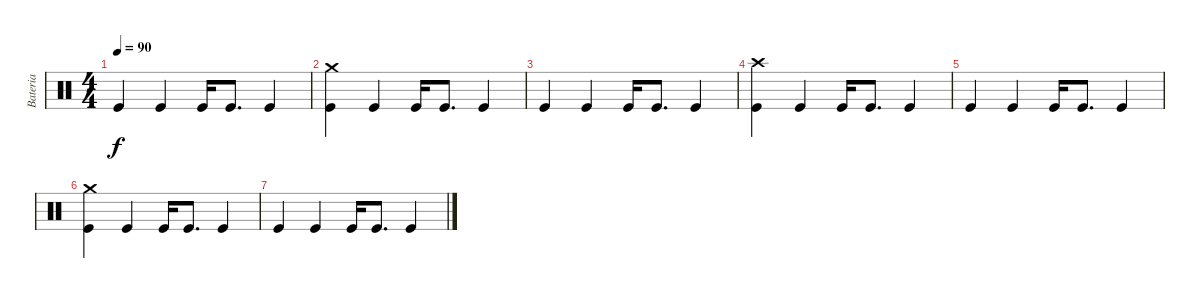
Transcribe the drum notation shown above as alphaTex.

\track ("Bateria" "Bateria") {instrument percussion}
\staff {score}
\articulation defaults
\ts (4 4)
\tempo 90
\clef neutral
\ks c "Kick (hit)".4{dy f} "Kick (hit)".4 "Kick (hit)".16 "Kick (hit)".8{d} "Kick (hit)".4
|
("Kick (hit)" "Crash medium (hit)").4 "Kick (hit)".4 "Kick (hit)".16 "Kick (hit)".8{d} "Kick (hit)".4 |
"Kick (hit)".4 "Kick (hit)".4 "Kick (hit)".16 "Kick (hit)".8{d} "Kick (hit)".4 |
("Kick (hit)" "Crash high (hit)").4 "Kick (hit)".4 "Kick (hit)".16 "Kick (hit)".8{d} "Kick (hit)".4 |
"Kick (hit)".4 "Kick (hit)".4 "Kick (hit)".16 "Kick (hit)".8{d} "Kick (hit)".4 |
("Kick (hit)" "Crash medium (hit)").4 "Kick (hit)".4 "Kick (hit)".16 "Kick (hit)".8{d} "Kick (hit)".4 |
"Kick (hit)".4 "Kick (hit)".4 "Kick (hit)".16 "Kick (hit)".8{d} "Kick (hit)".4
